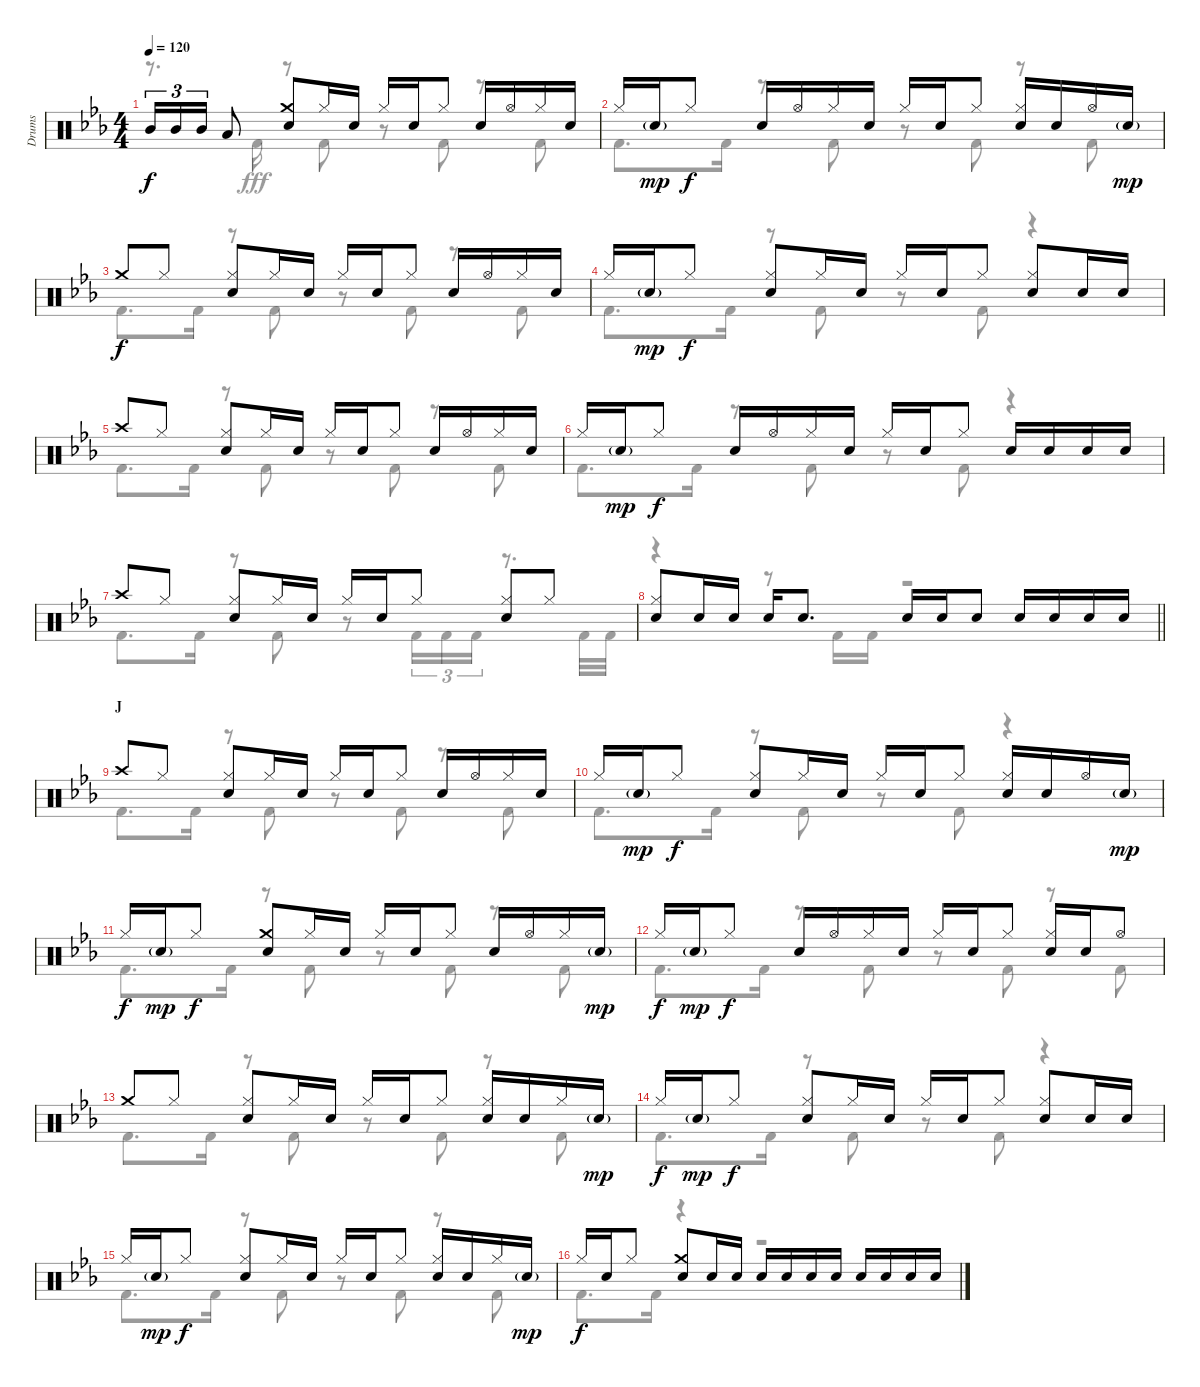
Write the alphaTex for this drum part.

\track ("Drums" "Drums") {instrument percussion}
\staff {score}
\articulation defaults
\voice
\ts (4 4)
\tempo 120
\clef neutral
\ks eb "Mid Tom (hit)".16{tu (3 2) dy f} "Mid Tom (hit)".16{tu (3 2)} "Mid Tom (hit)".16{tu (3 2)} "Low Tom (hit)".8
("Crash medium (hit)" "Snare (hit) 2").8 "Hi-Hat (closed)".16 "Snare (hit) 2".16 "Hi-Hat (closed)".16 "Snare (hit) 2".16 "Hi-Hat (closed)".8 "Snare (hit) 2".16 "Hi-Hat (open)".16 "Hi-Hat (closed)".16 "Snare (hit) 2".16 |
"Hi-Hat (closed)".16 "Snare (hit) 2"{g}.16{dy mp} "Hi-Hat (closed)".8{dy f} "Snare (hit) 2".16 "Hi-Hat (open)".16 "Hi-Hat (closed)".16 "Snare (hit) 2".16 "Hi-Hat (closed)".16 "Snare (hit) 2".16 "Hi-Hat (closed)".8 ("Hi-Hat (closed)" "Snare (hit) 2").16 "Snare (hit) 2".16 "Hi-Hat (open)".16 "Snare (hit) 2"{g}.16{dy mp} |
"Crash medium (hit)".8{dy f} "Hi-Hat (closed)".8 ("Hi-Hat (closed)" "Snare (hit) 2").8 "Hi-Hat (closed)".16 "Snare (hit) 2".16 "Hi-Hat (closed)".16 "Snare (hit) 2".16 "Hi-Hat (closed)".8 "Snare (hit) 2".16 "Hi-Hat (open)".16 "Hi-Hat (closed)".16 "Snare (hit) 2".16 |
"Hi-Hat (closed)".16 "Snare (hit) 2"{g}.16{dy mp} "Hi-Hat (closed)".8{dy f} ("Hi-Hat (closed)" "Snare (hit) 2").8 "Hi-Hat (closed)".16 "Snare (hit) 2".16 "Hi-Hat (closed)".16 "Snare (hit) 2".16 "Hi-Hat (closed)".8 ("Hi-Hat (closed)" "Snare (hit) 2").8 "Snare (hit) 2".16 "Snare (hit) 2".16 |
"Crash high (hit)".8 "Hi-Hat (closed)".8 ("Hi-Hat (closed)" "Snare (hit) 2").8 "Hi-Hat (closed)".16 "Snare (hit) 2".16 "Hi-Hat (closed)".16 "Snare (hit) 2".16 "Hi-Hat (closed)".8 "Snare (hit) 2".16 "Hi-Hat (open)".16 "Hi-Hat (closed)".16 "Snare (hit) 2".16 |
"Hi-Hat (closed)".16 "Snare (hit) 2"{g}.16{dy mp} "Hi-Hat (closed)".8{dy f} "Snare (hit) 2".16 "Hi-Hat (open)".16 "Hi-Hat (closed)".16 "Snare (hit) 2".16 "Hi-Hat (closed)".16 "Snare (hit) 2".16 "Hi-Hat (closed)".8 "Snare (hit) 2".16 "Snare (hit) 2".16 "Snare (hit) 2".16 "Snare (hit) 2".16 |
"Crash high (hit)".8 "Hi-Hat (closed)".8 ("Hi-Hat (closed)" "Snare (hit) 2").8 "Hi-Hat (closed)".16 "Snare (hit) 2".16 "Hi-Hat (closed)".16 "Snare (hit) 2".16 "Hi-Hat (closed)".8 ("Hi-Hat (closed)" "Snare (hit) 2").8 "Hi-Hat (closed)".8 |
\barLineRight lightlight
("Hi-Hat (closed)" "Snare (hit) 2").8 "Snare (hit) 2".16 "Snare (hit) 2".16 "Snare (hit) 2".16 "Snare (hit) 2".8{d} "Snare (hit) 2".16 "Snare (hit) 2".16 "Snare (hit) 2".8 "Snare (hit) 2".16 "Snare (hit) 2".16 "Snare (hit) 2".16 "Snare (hit) 2".16 |
\section ("" "J")
"Crash high (hit)".8 "Hi-Hat (closed)".8 ("Hi-Hat (closed)" "Snare (hit) 2").8 "Hi-Hat (closed)".16 "Snare (hit) 2".16 "Hi-Hat (closed)".16 "Snare (hit) 2".16 "Hi-Hat (closed)".8 "Snare (hit) 2".16 "Hi-Hat (open)".16 "Hi-Hat (closed)".16 "Snare (hit) 2".16 |
"Hi-Hat (closed)".16 "Snare (hit) 2"{g}.16{dy mp} "Hi-Hat (closed)".8{dy f} ("Hi-Hat (closed)" "Snare (hit) 2").8 "Hi-Hat (closed)".16 "Snare (hit) 2".16 "Hi-Hat (closed)".16 "Snare (hit) 2".16 "Hi-Hat (closed)".8 ("Hi-Hat (closed)" "Snare (hit) 2").16 "Snare (hit) 2".16 "Hi-Hat (open)".16 "Snare (hit) 2"{g}.16{dy mp} |
"Hi-Hat (closed)".16{dy f} "Snare (hit) 2"{g}.16{dy mp} "Hi-Hat (closed)".8{dy f} ("Crash medium (hit)" "Snare (hit) 2").8 "Hi-Hat (closed)".16 "Snare (hit) 2".16 "Hi-Hat (closed)".16 "Snare (hit) 2".16 "Hi-Hat (closed)".8 "Snare (hit) 2".16 "Hi-Hat (open)".16 "Hi-Hat (closed)".16 "Snare (hit) 2"{g}.16{dy mp} |
"Hi-Hat (closed)".16{dy f} "Snare (hit) 2"{g}.16{dy mp} "Hi-Hat (closed)".8{dy f} "Snare (hit) 2".16 "Hi-Hat (open)".16 "Hi-Hat (closed)".16 "Snare (hit) 2".16 "Hi-Hat (closed)".16 "Snare (hit) 2".16 "Hi-Hat (closed)".8 ("Hi-Hat (closed)" "Snare (hit) 2").16 "Snare (hit) 2".16 "Hi-Hat (open)".8 |
"Crash medium (hit)".8 "Hi-Hat (closed)".8 ("Hi-Hat (closed)" "Snare (hit) 2").8 "Hi-Hat (closed)".16 "Snare (hit) 2".16 "Hi-Hat (closed)".16 "Snare (hit) 2".16 "Hi-Hat (closed)".8 ("Hi-Hat (closed)" "Snare (hit) 2").16 "Snare (hit) 2".16 "Hi-Hat (closed)".16 "Snare (hit) 2"{g}.16{dy mp} |
"Hi-Hat (closed)".16{dy f} "Snare (hit) 2"{g}.16{dy mp} "Hi-Hat (closed)".8{dy f} ("Hi-Hat (closed)" "Snare (hit) 2").8 "Hi-Hat (closed)".16 "Snare (hit) 2".16 "Hi-Hat (closed)".16 "Snare (hit) 2".16 "Hi-Hat (closed)".8 ("Hi-Hat (closed)" "Snare (hit) 2").8 "Snare (hit) 2".16 "Snare (hit) 2".16 |
"Hi-Hat (closed)".16 "Snare (hit) 2"{g}.16{dy mp} "Hi-Hat (closed)".8{dy f} ("Hi-Hat (closed)" "Snare (hit) 2").8 "Hi-Hat (closed)".16 "Snare (hit) 2".16 "Hi-Hat (closed)".16 "Snare (hit) 2".16 "Hi-Hat (closed)".8 ("Hi-Hat (closed)" "Snare (hit) 2").16 "Snare (hit) 2".16 "Hi-Hat (closed)".16 "Snare (hit) 2"{g}.16{dy mp} |
"Hi-Hat (closed)".16{dy f} "Snare (hit) 2".16 "Hi-Hat (closed)".8 ("Crash medium (hit)" "Snare (hit) 2").8 "Snare (hit) 2".16 "Snare (hit) 2".16 "Snare (hit) 2".16 "Snare (hit) 2".16 "Snare (hit) 2".16 "Snare (hit) 2".16 "Snare (hit) 2".16 "Snare (hit) 2".16 "Snare (hit) 2".16 "Snare (hit) 2".16
\voice
\clef neutral
\ottava regular
\simile none
\ks eb
r.8{d dy fff} "Kick (hit) 2".16 r.8 "Kick (hit) 2".8 r.8 "Kick (hit) 2".8 r.8 "Kick (hit) 2".8 |
"Kick (hit) 2".8{d} "Kick (hit) 2".16 r.8 "Kick (hit) 2".8 r.8 "Kick (hit) 2".8 r.8 "Kick (hit) 2".8 |
"Kick (hit) 2".8{d} "Kick (hit) 2".16 r.8 "Kick (hit) 2".8 r.8 "Kick (hit) 2".8 r.8 "Kick (hit) 2".8 |
"Kick (hit) 2".8{d} "Kick (hit) 2".16 r.8 "Kick (hit) 2".8 r.8 "Kick (hit) 2".8 r.4 |
"Kick (hit) 2".8{d} "Kick (hit) 2".16 r.8 "Kick (hit) 2".8 r.8 "Kick (hit) 2".8 r.8 "Kick (hit) 2".8 |
"Kick (hit) 2".8{d} "Kick (hit) 2".16 r.8 "Kick (hit) 2".8 r.8 "Kick (hit) 2".8 r.4 |
"Kick (hit) 2".8{d} "Kick (hit) 2".16 r.8 "Kick (hit) 2".8 r.8 "Kick (hit) 2".16{tu (3 2)} "Kick (hit) 2".16{tu (3 2)} "Kick (hit) 2".16{tu (3 2)} r.8{d} "Kick (hit) 2".32 "Kick (hit) 2".32 |
\barLineRight lightlight
r.4 r.8 "Kick (hit) 2".16 "Kick (hit) 2".16 r.2 |
"Kick (hit) 2".8{d} "Kick (hit) 2".16 r.8 "Kick (hit) 2".8 r.8 "Kick (hit) 2".8 r.8 "Kick (hit) 2".8 |
"Kick (hit) 2".8{d} "Kick (hit) 2".16 r.8 "Kick (hit) 2".8 r.8 "Kick (hit) 2".8 r.4 |
"Kick (hit) 2".8{d} "Kick (hit) 2".16 r.8 "Kick (hit) 2".8 r.8 "Kick (hit) 2".8 r.8 "Kick (hit) 2".8 |
"Kick (hit) 2".8{d} "Kick (hit) 2".16 r.8 "Kick (hit) 2".8 r.8 "Kick (hit) 2".8 r.8 "Kick (hit) 2".8 |
"Kick (hit) 2".8{d} "Kick (hit) 2".16 r.8 "Kick (hit) 2".8 r.8 "Kick (hit) 2".8 r.8 "Kick (hit) 2".8 |
"Kick (hit) 2".8{d} "Kick (hit) 2".16 r.8 "Kick (hit) 2".8 r.8 "Kick (hit) 2".8 r.4 |
"Kick (hit) 2".8{d} "Kick (hit) 2".16 r.8 "Kick (hit) 2".8 r.8 "Kick (hit) 2".8 r.8 "Kick (hit) 2".8 |
"Kick (hit) 2".8{d} "Kick (hit) 2".16 r.4 r.2
